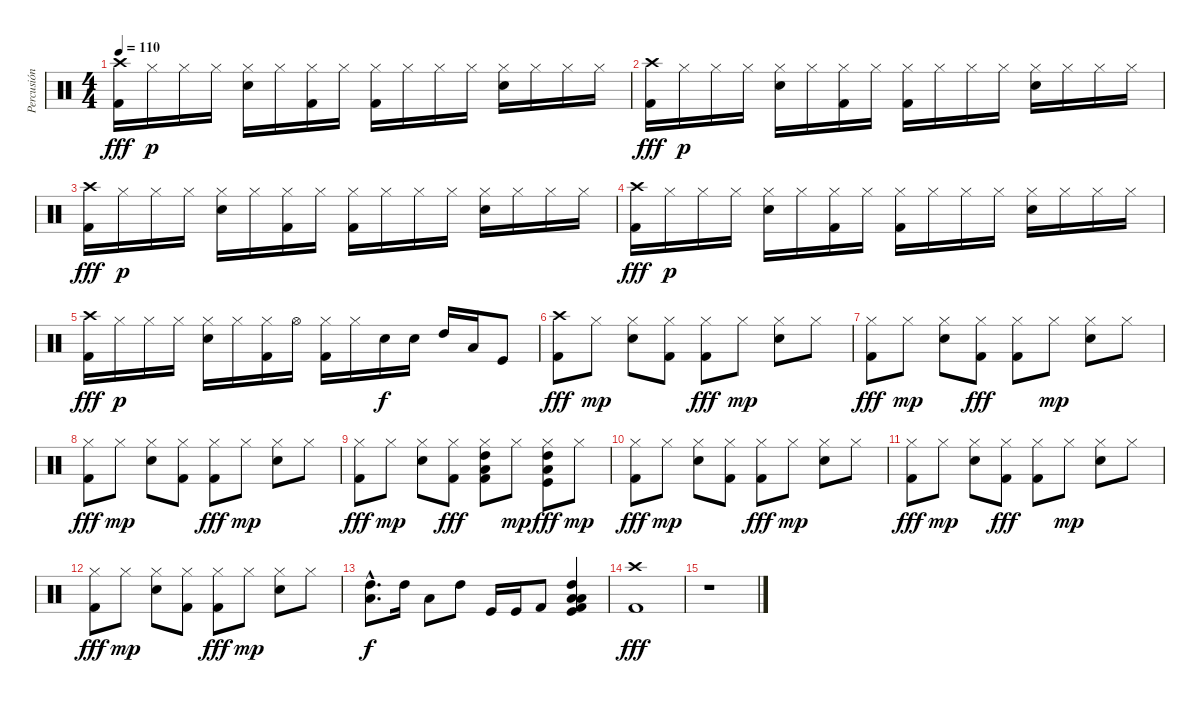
\track ("Percusión" "Percusión") {instrument percussion}
\staff {score}
\articulation defaults
\ts (4 4)
\tempo 110
\clef neutral
\ks c
("Crash high (hit)" "Kick (hit) 2").16{dy fff} "Hi-Hat (closed)".16{dy p} "Hi-Hat (closed)".16 "Hi-Hat (closed)".16 ("Hi-Hat (closed)" "Snare (hit) 2").16 "Hi-Hat (closed)".16 ("Hi-Hat (closed)" "Kick (hit) 2").16 "Hi-Hat (closed)".16 ("Hi-Hat (closed)" "Kick (hit) 2").16 "Hi-Hat (closed)".16 "Hi-Hat (closed)".16 "Hi-Hat (closed)".16 ("Hi-Hat (closed)" "Snare (hit) 2").16 "Hi-Hat (closed)".16 "Hi-Hat (closed)".16 "Hi-Hat (closed)".16 |
("Crash high (hit)" "Kick (hit) 2").16{dy fff} "Hi-Hat (closed)".16{dy p} "Hi-Hat (closed)".16 "Hi-Hat (closed)".16 ("Hi-Hat (closed)" "Snare (hit) 2").16 "Hi-Hat (closed)".16 ("Hi-Hat (closed)" "Kick (hit) 2").16 "Hi-Hat (closed)".16 ("Hi-Hat (closed)" "Kick (hit) 2").16 "Hi-Hat (closed)".16 "Hi-Hat (closed)".16 "Hi-Hat (closed)".16 ("Hi-Hat (closed)" "Snare (hit) 2").16 "Hi-Hat (closed)".16 "Hi-Hat (closed)".16 "Hi-Hat (closed)".16 |
("Crash high (hit)" "Kick (hit) 2").16{dy fff} "Hi-Hat (closed)".16{dy p} "Hi-Hat (closed)".16 "Hi-Hat (closed)".16 ("Hi-Hat (closed)" "Snare (hit) 2").16 "Hi-Hat (closed)".16 ("Hi-Hat (closed)" "Kick (hit) 2").16 "Hi-Hat (closed)".16 ("Hi-Hat (closed)" "Kick (hit) 2").16 "Hi-Hat (closed)".16 "Hi-Hat (closed)".16 "Hi-Hat (closed)".16 ("Hi-Hat (closed)" "Snare (hit) 2").16 "Hi-Hat (closed)".16 "Hi-Hat (closed)".16 "Hi-Hat (closed)".16 |
("Crash high (hit)" "Kick (hit) 2").16{dy fff} "Hi-Hat (closed)".16{dy p} "Hi-Hat (closed)".16 "Hi-Hat (closed)".16 ("Hi-Hat (closed)" "Snare (hit) 2").16 "Hi-Hat (closed)".16 ("Hi-Hat (closed)" "Kick (hit) 2").16 "Hi-Hat (closed)".16 ("Hi-Hat (closed)" "Kick (hit) 2").16 "Hi-Hat (closed)".16 "Hi-Hat (closed)".16 "Hi-Hat (closed)".16 ("Hi-Hat (closed)" "Snare (hit) 2").16 "Hi-Hat (closed)".16 "Hi-Hat (closed)".16 "Hi-Hat (closed)".16 |
("Crash high (hit)" "Kick (hit) 2").16{dy fff} "Hi-Hat (closed)".16{dy p} "Hi-Hat (closed)".16 "Hi-Hat (closed)".16 ("Hi-Hat (closed)" "Snare (hit) 2").16 "Hi-Hat (closed)".16 ("Hi-Hat (closed)" "Kick (hit) 2").16 "Hi-Hat (open)".16 ("Hi-Hat (closed)" "Kick (hit) 2").16 "Hi-Hat (closed)".16 "Snare (hit) 2".16{dy f} "Snare (hit) 2".16 "High Tom (hit)".16 "Low Tom (hit)".16 "Kick (hit)".8 |
("Crash high (hit)" "Kick (hit) 2").8{dy fff} "Hi-Hat (closed)".8{dy mp} ("Hi-Hat (closed)" "Snare (hit) 2").8 ("Hi-Hat (closed)" "Kick (hit) 2").8 ("Hi-Hat (closed)" "Kick (hit) 2").8{dy fff} "Hi-Hat (closed)".8{dy mp} ("Hi-Hat (closed)" "Snare (hit) 2").8 "Hi-Hat (closed)".8 |
("Hi-Hat (closed)" "Kick (hit) 2").8{dy fff} "Hi-Hat (closed)".8{dy mp} ("Hi-Hat (closed)" "Snare (hit) 2").8 ("Hi-Hat (closed)" "Kick (hit) 2").8{dy fff} ("Hi-Hat (closed)" "Kick (hit) 2").8 "Hi-Hat (closed)".8{dy mp} ("Hi-Hat (closed)" "Snare (hit) 2").8 "Hi-Hat (closed)".8 |
("Hi-Hat (closed)" "Kick (hit) 2").8{dy fff} "Hi-Hat (closed)".8{dy mp} ("Hi-Hat (closed)" "Snare (hit) 2").8 ("Hi-Hat (closed)" "Kick (hit) 2").8 ("Hi-Hat (closed)" "Kick (hit) 2").8{dy fff} "Hi-Hat (closed)".8{dy mp} ("Hi-Hat (closed)" "Snare (hit) 2").8 "Hi-Hat (closed)".8 |
("Hi-Hat (closed)" "Kick (hit) 2").8{dy fff} "Hi-Hat (closed)".8{dy mp} ("Hi-Hat (closed)" "Snare (hit) 2").8 ("Hi-Hat (closed)" "Kick (hit) 2").8{dy fff} ("Hi-Hat (closed)" "Kick (hit) 2" "High Tom (hit)" "Low Tom (hit)").8 "Hi-Hat (closed)".8{dy mp} ("Hi-Hat (closed)" "Kick (hit)" "Low Tom (hit)" "High Tom (hit)").8{dy fff} "Hi-Hat (closed)".8{dy mp} |
("Hi-Hat (closed)" "Kick (hit) 2").8{dy fff} "Hi-Hat (closed)".8{dy mp} ("Hi-Hat (closed)" "Snare (hit) 2").8 ("Hi-Hat (closed)" "Kick (hit) 2").8 ("Hi-Hat (closed)" "Kick (hit) 2").8{dy fff} "Hi-Hat (closed)".8{dy mp} ("Hi-Hat (closed)" "Snare (hit) 2").8 "Hi-Hat (closed)".8 |
("Hi-Hat (closed)" "Kick (hit) 2").8{dy fff} "Hi-Hat (closed)".8{dy mp} ("Hi-Hat (closed)" "Snare (hit) 2").8 ("Hi-Hat (closed)" "Kick (hit) 2").8{dy fff} ("Hi-Hat (closed)" "Kick (hit) 2").8 "Hi-Hat (closed)".8{dy mp} ("Hi-Hat (closed)" "Snare (hit) 2").8 "Hi-Hat (closed)".8 |
("Hi-Hat (closed)" "Kick (hit) 2").8{dy fff} "Hi-Hat (closed)".8{dy mp} ("Hi-Hat (closed)" "Snare (hit) 2").8 ("Hi-Hat (closed)" "Kick (hit) 2").8 ("Hi-Hat (closed)" "Kick (hit) 2").8{dy fff} "Hi-Hat (closed)".8{dy mp} ("Hi-Hat (closed)" "Snare (hit) 2").8 "Hi-Hat (closed)".8 |
("Low Tom (hit)"{hac} "High Tom (hit)"{hac}).8{d bd 120 dy f balance 10} "High Tom (hit)".16 "Low Tom (hit)".8 "High Tom (hit)".8 "Kick (hit)".16{balance 6} "Kick (hit)".16 "Kick (hit) 2".8 ("High Tom (hit)" "Kick (hit)" "Low Tom (hit)" "Kick (hit) 2" "Low Tom (hit)").4{bd 30} |
("Crash high (hit)" "Kick (hit) 2").1{dy fff} |
r.1
